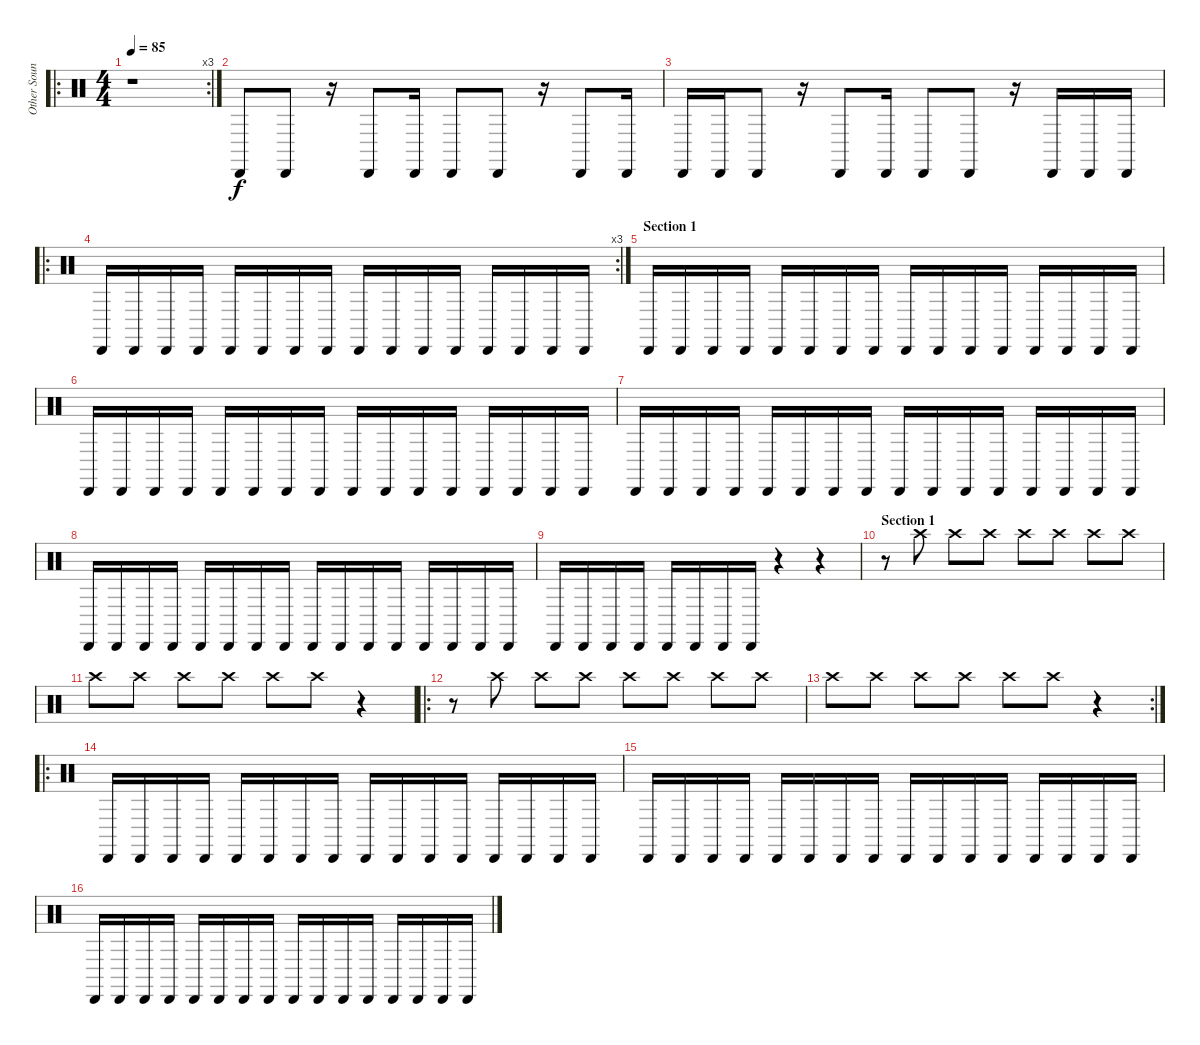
\track ("Other Sounds" "Other Soun") {instrument percussion}
\staff {score}
\articulation defaults
\ro
\rc 3
\ts (4 4)
\tempo 85
\clef neutral
\ks c
r.1{dy f} |
"Cabasa (hit)".8 "Cabasa (hit)".8 r.16 "Cabasa (hit)".8 "Cabasa (hit)".16 "Cabasa (hit)".8 "Cabasa (hit)".8 r.16 "Cabasa (hit)".8 "Cabasa (hit)".16 |
"Cabasa (hit)".16 "Cabasa (hit)".16 "Cabasa (hit)".8 r.16 "Cabasa (hit)".8 "Cabasa (hit)".16 "Cabasa (hit)".8 "Cabasa (hit)".8 r.16 "Cabasa (hit)".16 "Cabasa (hit)".16 "Cabasa (hit)".16 |
\ro
\rc 3 "Cabasa (hit)".16 "Cabasa (hit)".16 "Cabasa (hit)".16 "Cabasa (hit)".16 "Cabasa (hit)".16 "Cabasa (hit)".16 "Cabasa (hit)".16 "Cabasa (hit)".16 "Cabasa (hit)".16 "Cabasa (hit)".16 "Cabasa (hit)".16 "Cabasa (hit)".16 "Cabasa (hit)".16 "Cabasa (hit)".16 "Cabasa (hit)".16 "Cabasa (hit)".16
|
\section ("" "Section 1")
"Cabasa (hit)".16 "Cabasa (hit)".16 "Cabasa (hit)".16 "Cabasa (hit)".16 "Cabasa (hit)".16 "Cabasa (hit)".16 "Cabasa (hit)".16 "Cabasa (hit)".16 "Cabasa (hit)".16 "Cabasa (hit)".16 "Cabasa (hit)".16 "Cabasa (hit)".16 "Cabasa (hit)".16 "Cabasa (hit)".16 "Cabasa (hit)".16 "Cabasa (hit)".16 |
"Cabasa (hit)".16 "Cabasa (hit)".16 "Cabasa (hit)".16 "Cabasa (hit)".16 "Cabasa (hit)".16 "Cabasa (hit)".16 "Cabasa (hit)".16 "Cabasa (hit)".16 "Cabasa (hit)".16 "Cabasa (hit)".16 "Cabasa (hit)".16 "Cabasa (hit)".16 "Cabasa (hit)".16 "Cabasa (hit)".16 "Cabasa (hit)".16 "Cabasa (hit)".16 |
"Cabasa (hit)".16 "Cabasa (hit)".16 "Cabasa (hit)".16 "Cabasa (hit)".16 "Cabasa (hit)".16 "Cabasa (hit)".16 "Cabasa (hit)".16 "Cabasa (hit)".16 "Cabasa (hit)".16 "Cabasa (hit)".16 "Cabasa (hit)".16 "Cabasa (hit)".16 "Cabasa (hit)".16 "Cabasa (hit)".16 "Cabasa (hit)".16 "Cabasa (hit)".16 |
"Cabasa (hit)".16 "Cabasa (hit)".16 "Cabasa (hit)".16 "Cabasa (hit)".16 "Cabasa (hit)".16 "Cabasa (hit)".16 "Cabasa (hit)".16 "Cabasa (hit)".16 "Cabasa (hit)".16 "Cabasa (hit)".16 "Cabasa (hit)".16 "Cabasa (hit)".16 "Cabasa (hit)".16 "Cabasa (hit)".16 "Cabasa (hit)".16 "Cabasa (hit)".16 |
"Cabasa (hit)".16 "Cabasa (hit)".16 "Cabasa (hit)".16 "Cabasa (hit)".16 "Cabasa (hit)".16 "Cabasa (hit)".16 "Cabasa (hit)".16 "Cabasa (hit)".16 r.4 r.4 |
\section ("" "Section 1")
r.8 "Crash high (hit)".8 "Crash high (hit)".8 "Crash high (hit)".8 "Crash high (hit)".8 "Crash high (hit)".8 "Crash high (hit)".8 "Crash high (hit)".8 |
"Crash high (hit)".8 "Crash high (hit)".8 "Crash high (hit)".8 "Crash high (hit)".8 "Crash high (hit)".8 "Crash high (hit)".8 r.4 |
\ro
r.8 "Crash high (hit)".8 "Crash high (hit)".8 "Crash high (hit)".8 "Crash high (hit)".8 "Crash high (hit)".8 "Crash high (hit)".8 "Crash high (hit)".8 |
\rc 2 "Crash high (hit)".8 "Crash high (hit)".8 "Crash high (hit)".8 "Crash high (hit)".8 "Crash high (hit)".8 "Crash high (hit)".8
r.4 |
\ro "Cabasa (hit)".16 "Cabasa (hit)".16 "Cabasa (hit)".16 "Cabasa (hit)".16 "Cabasa (hit)".16 "Cabasa (hit)".16 "Cabasa (hit)".16 "Cabasa (hit)".16 "Cabasa (hit)".16 "Cabasa (hit)".16 "Cabasa (hit)".16 "Cabasa (hit)".16 "Cabasa (hit)".16 "Cabasa (hit)".16 "Cabasa (hit)".16 "Cabasa (hit)".16
|
"Cabasa (hit)".16 "Cabasa (hit)".16 "Cabasa (hit)".16 "Cabasa (hit)".16 "Cabasa (hit)".16 "Cabasa (hit)".16 "Cabasa (hit)".16 "Cabasa (hit)".16 "Cabasa (hit)".16 "Cabasa (hit)".16 "Cabasa (hit)".16 "Cabasa (hit)".16 "Cabasa (hit)".16 "Cabasa (hit)".16 "Cabasa (hit)".16 "Cabasa (hit)".16 |
"Cabasa (hit)".16 "Cabasa (hit)".16 "Cabasa (hit)".16 "Cabasa (hit)".16 "Cabasa (hit)".16 "Cabasa (hit)".16 "Cabasa (hit)".16 "Cabasa (hit)".16 "Cabasa (hit)".16 "Cabasa (hit)".16 "Cabasa (hit)".16 "Cabasa (hit)".16 "Cabasa (hit)".16 "Cabasa (hit)".16 "Cabasa (hit)".16 "Cabasa (hit)".16
